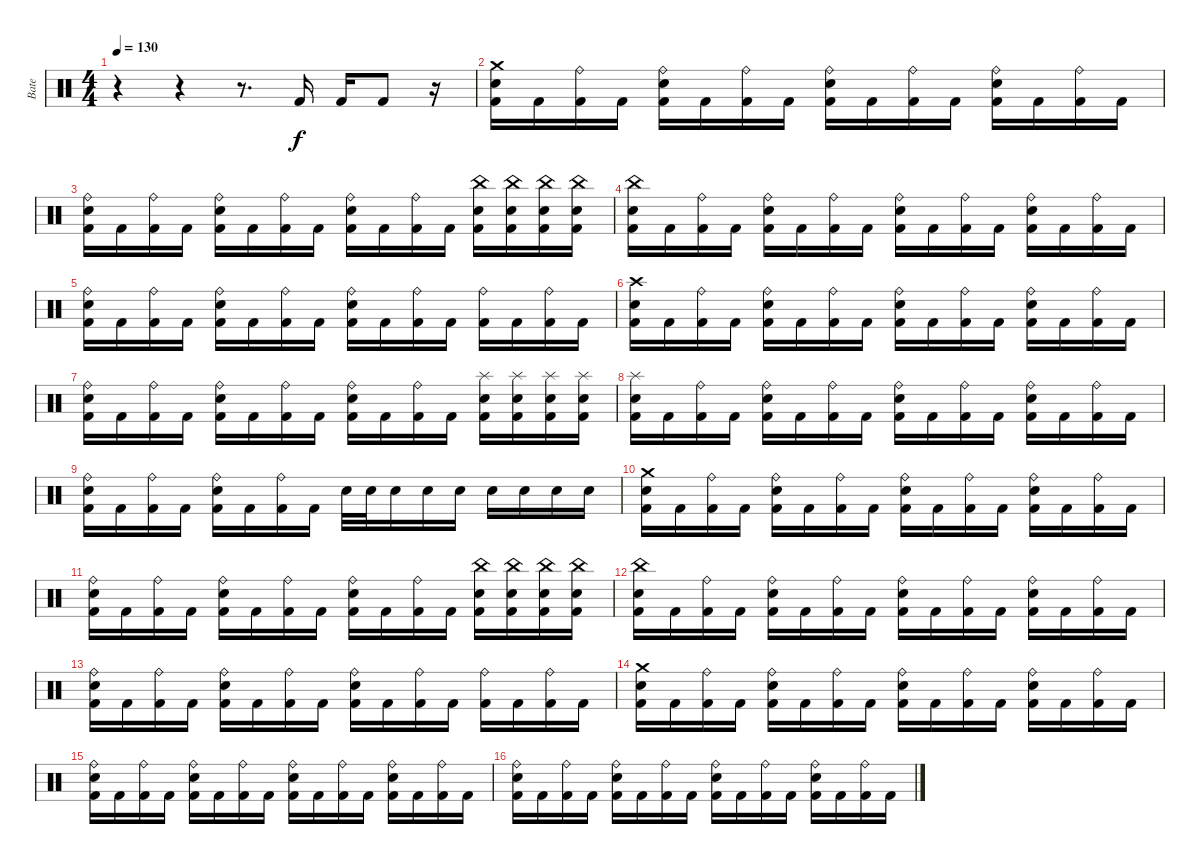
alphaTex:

\track ("Bate" "Bate") {instrument percussion}
\staff {score}
\articulation defaults
\ts (4 4)
\tempo 130
\clef neutral
\ks c
r.4{dy f} r.4 r.8{d} "Kick (hit) 2".16 "Kick (hit) 2".16 "Kick (hit) 2".8 r.16 |
("Crash medium (hit)" "Snare (hit) 2" "Kick (hit) 2").16 "Kick (hit) 2".16 ("Ride (bell)" "Kick (hit) 2").16 "Kick (hit) 2".16 ("Ride (bell)" "Snare (hit) 2" "Kick (hit) 2").16 "Kick (hit) 2".16 ("Ride (bell)" "Kick (hit) 2").16 "Kick (hit) 2".16 ("Ride (bell)" "Snare (hit) 2" "Kick (hit) 2").16 "Kick (hit) 2".16 ("Ride (bell)" "Kick (hit) 2").16 "Kick (hit) 2".16 ("Ride (bell)" "Snare (hit) 2" "Kick (hit) 2").16 "Kick (hit) 2".16 ("Ride (bell)" "Kick (hit) 2").16 "Kick (hit) 2".16 |
("Ride (bell)" "Snare (hit) 2" "Kick (hit) 2").16 "Kick (hit) 2".16 ("Ride (bell)" "Kick (hit) 2").16 "Kick (hit) 2".16 ("Ride (bell)" "Snare (hit) 2" "Kick (hit) 2").16 "Kick (hit) 2".16 ("Ride (bell)" "Kick (hit) 2").16 "Kick (hit) 2".16 ("Ride (bell)" "Snare (hit) 2" "Kick (hit) 2").16 "Kick (hit) 2".16 ("Ride (bell)" "Kick (hit) 2").16 "Kick (hit) 2".16 ("China (hit)" "Snare (hit) 2" "Kick (hit) 2").16 ("China (hit)" "Snare (hit) 2" "Kick (hit) 2").16 ("China (hit)" "Snare (hit) 2" "Kick (hit) 2").16 ("China (hit)" "Snare (hit) 2" "Kick (hit) 2").16 |
("China (hit)" "Snare (hit) 2" "Kick (hit) 2").16 "Kick (hit) 2".16 ("Ride (bell)" "Kick (hit) 2").16 "Kick (hit) 2".16 ("Ride (bell)" "Snare (hit) 2" "Kick (hit) 2").16 "Kick (hit) 2".16 ("Ride (bell)" "Kick (hit) 2").16 "Kick (hit) 2".16 ("Ride (bell)" "Snare (hit) 2" "Kick (hit) 2").16 "Kick (hit) 2".16 ("Ride (bell)" "Kick (hit) 2").16 "Kick (hit) 2".16 ("Ride (bell)" "Snare (hit) 2" "Kick (hit) 2").16 "Kick (hit) 2".16 ("Ride (bell)" "Kick (hit) 2").16 "Kick (hit) 2".16 |
("Ride (bell)" "Snare (hit) 2" "Kick (hit) 2").16 "Kick (hit) 2".16 ("Ride (bell)" "Kick (hit) 2").16 "Kick (hit) 2".16 ("Ride (bell)" "Snare (hit) 2" "Kick (hit) 2").16 "Kick (hit) 2".16 ("Ride (bell)" "Kick (hit) 2").16 "Kick (hit) 2".16 ("Ride (bell)" "Snare (hit) 2" "Kick (hit) 2").16 "Kick (hit) 2".16 ("Ride (bell)" "Kick (hit) 2").16 "Kick (hit) 2".16 ("Ride (bell)" "Kick (hit) 2").16 "Kick (hit) 2".16 ("Ride (bell)" "Kick (hit) 2").16 "Kick (hit) 2".16 |
("Crash high (hit)" "Snare (hit) 2" "Kick (hit) 2").16 "Kick (hit) 2".16 ("Ride (bell)" "Kick (hit) 2").16 "Kick (hit) 2".16 ("Ride (bell)" "Snare (hit) 2" "Kick (hit) 2").16 "Kick (hit) 2".16 ("Ride (bell)" "Kick (hit) 2").16 "Kick (hit) 2".16 ("Ride (bell)" "Snare (hit) 2" "Kick (hit) 2").16 "Kick (hit) 2".16 ("Ride (bell)" "Kick (hit) 2").16 "Kick (hit) 2".16 ("Ride (bell)" "Snare (hit) 2" "Kick (hit) 2").16 "Kick (hit) 2".16 ("Ride (bell)" "Kick (hit) 2").16 "Kick (hit) 2".16 |
("Ride (bell)" "Snare (hit) 2" "Kick (hit) 2").16 "Kick (hit) 2".16 ("Ride (bell)" "Kick (hit) 2").16 "Kick (hit) 2".16 ("Ride (bell)" "Snare (hit) 2" "Kick (hit) 2").16 "Kick (hit) 2".16 ("Ride (bell)" "Kick (hit) 2").16 "Kick (hit) 2".16 ("Ride (bell)" "Snare (hit) 2" "Kick (hit) 2").16 "Kick (hit) 2".16 ("Ride (bell)" "Kick (hit) 2").16 "Kick (hit) 2".16 ("Splash (hit)" "Snare (hit) 2" "Kick (hit) 2").16 ("Splash (hit)" "Snare (hit) 2" "Kick (hit) 2").16 ("Splash (hit)" "Snare (hit) 2" "Kick (hit) 2").16 ("Splash (hit)" "Snare (hit) 2" "Kick (hit) 2").16 |
("Splash (hit)" "Snare (hit) 2" "Kick (hit) 2").16 "Kick (hit) 2".16 ("Ride (bell)" "Kick (hit) 2").16 "Kick (hit) 2".16 ("Ride (bell)" "Snare (hit) 2" "Kick (hit) 2").16 "Kick (hit) 2".16 ("Ride (bell)" "Kick (hit) 2").16 "Kick (hit) 2".16 ("Ride (bell)" "Snare (hit) 2" "Kick (hit) 2").16 "Kick (hit) 2".16 ("Ride (bell)" "Kick (hit) 2").16 "Kick (hit) 2".16 ("Ride (bell)" "Snare (hit) 2" "Kick (hit) 2").16 "Kick (hit) 2".16 ("Ride (bell)" "Kick (hit) 2").16 "Kick (hit) 2".16 |
("Ride (bell)" "Snare (hit) 2" "Kick (hit) 2").16 "Kick (hit) 2".16 ("Ride (bell)" "Kick (hit) 2").16 "Kick (hit) 2".16 ("Ride (bell)" "Snare (hit) 2" "Kick (hit) 2").16 "Kick (hit) 2".16 ("Ride (bell)" "Kick (hit) 2").16 "Kick (hit) 2".16 "Snare (hit) 2".32 "Snare (hit) 2".32 "Snare (hit) 2".16 "Snare (hit) 2".16 "Snare (hit) 2".16 "Snare (hit) 2".16 "Snare (hit) 2".16 "Snare (hit) 2".16 "Snare (hit) 2".16 |
("Crash medium (hit)" "Snare (hit) 2" "Kick (hit) 2").16 "Kick (hit) 2".16 ("Ride (bell)" "Kick (hit) 2").16 "Kick (hit) 2".16 ("Ride (bell)" "Snare (hit) 2" "Kick (hit) 2").16 "Kick (hit) 2".16 ("Ride (bell)" "Kick (hit) 2").16 "Kick (hit) 2".16 ("Ride (bell)" "Snare (hit) 2" "Kick (hit) 2").16 "Kick (hit) 2".16 ("Ride (bell)" "Kick (hit) 2").16 "Kick (hit) 2".16 ("Ride (bell)" "Snare (hit) 2" "Kick (hit) 2").16 "Kick (hit) 2".16 ("Ride (bell)" "Kick (hit) 2").16 "Kick (hit) 2".16 |
("Ride (bell)" "Snare (hit) 2" "Kick (hit) 2").16 "Kick (hit) 2".16 ("Ride (bell)" "Kick (hit) 2").16 "Kick (hit) 2".16 ("Ride (bell)" "Snare (hit) 2" "Kick (hit) 2").16 "Kick (hit) 2".16 ("Ride (bell)" "Kick (hit) 2").16 "Kick (hit) 2".16 ("Ride (bell)" "Snare (hit) 2" "Kick (hit) 2").16 "Kick (hit) 2".16 ("Ride (bell)" "Kick (hit) 2").16 "Kick (hit) 2".16 ("China (hit)" "Snare (hit) 2" "Kick (hit) 2").16 ("China (hit)" "Snare (hit) 2" "Kick (hit) 2").16 ("China (hit)" "Snare (hit) 2" "Kick (hit) 2").16 ("China (hit)" "Snare (hit) 2" "Kick (hit) 2").16 |
("China (hit)" "Snare (hit) 2" "Kick (hit) 2").16 "Kick (hit) 2".16 ("Ride (bell)" "Kick (hit) 2").16 "Kick (hit) 2".16 ("Ride (bell)" "Snare (hit) 2" "Kick (hit) 2").16 "Kick (hit) 2".16 ("Ride (bell)" "Kick (hit) 2").16 "Kick (hit) 2".16 ("Ride (bell)" "Snare (hit) 2" "Kick (hit) 2").16 "Kick (hit) 2".16 ("Ride (bell)" "Kick (hit) 2").16 "Kick (hit) 2".16 ("Ride (bell)" "Snare (hit) 2" "Kick (hit) 2").16 "Kick (hit) 2".16 ("Ride (bell)" "Kick (hit) 2").16 "Kick (hit) 2".16 |
("Ride (bell)" "Snare (hit) 2" "Kick (hit) 2").16 "Kick (hit) 2".16 ("Ride (bell)" "Kick (hit) 2").16 "Kick (hit) 2".16 ("Ride (bell)" "Snare (hit) 2" "Kick (hit) 2").16 "Kick (hit) 2".16 ("Ride (bell)" "Kick (hit) 2").16 "Kick (hit) 2".16 ("Ride (bell)" "Snare (hit) 2" "Kick (hit) 2").16 "Kick (hit) 2".16 ("Ride (bell)" "Kick (hit) 2").16 "Kick (hit) 2".16 ("Ride (bell)" "Kick (hit) 2").16 "Kick (hit) 2".16 ("Ride (bell)" "Kick (hit) 2").16 "Kick (hit) 2".16 |
("Crash medium (hit)" "Snare (hit) 2" "Kick (hit) 2").16 "Kick (hit) 2".16 ("Ride (bell)" "Kick (hit) 2").16 "Kick (hit) 2".16 ("Ride (bell)" "Snare (hit) 2" "Kick (hit) 2").16 "Kick (hit) 2".16 ("Ride (bell)" "Kick (hit) 2").16 "Kick (hit) 2".16 ("Ride (bell)" "Snare (hit) 2" "Kick (hit) 2").16 "Kick (hit) 2".16 ("Ride (bell)" "Kick (hit) 2").16 "Kick (hit) 2".16 ("Ride (bell)" "Snare (hit) 2" "Kick (hit) 2").16 "Kick (hit) 2".16 ("Ride (bell)" "Kick (hit) 2").16 "Kick (hit) 2".16 |
("Ride (bell)" "Snare (hit) 2" "Kick (hit) 2").16 "Kick (hit) 2".16 ("Ride (bell)" "Kick (hit) 2").16 "Kick (hit) 2".16 ("Ride (bell)" "Snare (hit) 2" "Kick (hit) 2").16 "Kick (hit) 2".16 ("Ride (bell)" "Kick (hit) 2").16 "Kick (hit) 2".16 ("Ride (bell)" "Snare (hit) 2" "Kick (hit) 2").16 "Kick (hit) 2".16 ("Ride (bell)" "Kick (hit) 2").16 "Kick (hit) 2".16 ("Ride (bell)" "Snare (hit) 2" "Kick (hit) 2").16 "Kick (hit) 2".16 ("Ride (bell)" "Kick (hit) 2").16 "Kick (hit) 2".16 |
("Ride (bell)" "Snare (hit) 2" "Kick (hit) 2").16 "Kick (hit) 2".16 ("Ride (bell)" "Kick (hit) 2").16 "Kick (hit) 2".16 ("Ride (bell)" "Snare (hit) 2" "Kick (hit) 2").16 "Kick (hit) 2".16 ("Ride (bell)" "Kick (hit) 2").16 "Kick (hit) 2".16 ("Ride (bell)" "Snare (hit) 2" "Kick (hit) 2").16 "Kick (hit) 2".16 ("Ride (bell)" "Kick (hit) 2").16 "Kick (hit) 2".16 ("Ride (bell)" "Snare (hit) 2" "Kick (hit) 2").16 "Kick (hit) 2".16 ("Ride (bell)" "Kick (hit) 2").16 "Kick (hit) 2".16
